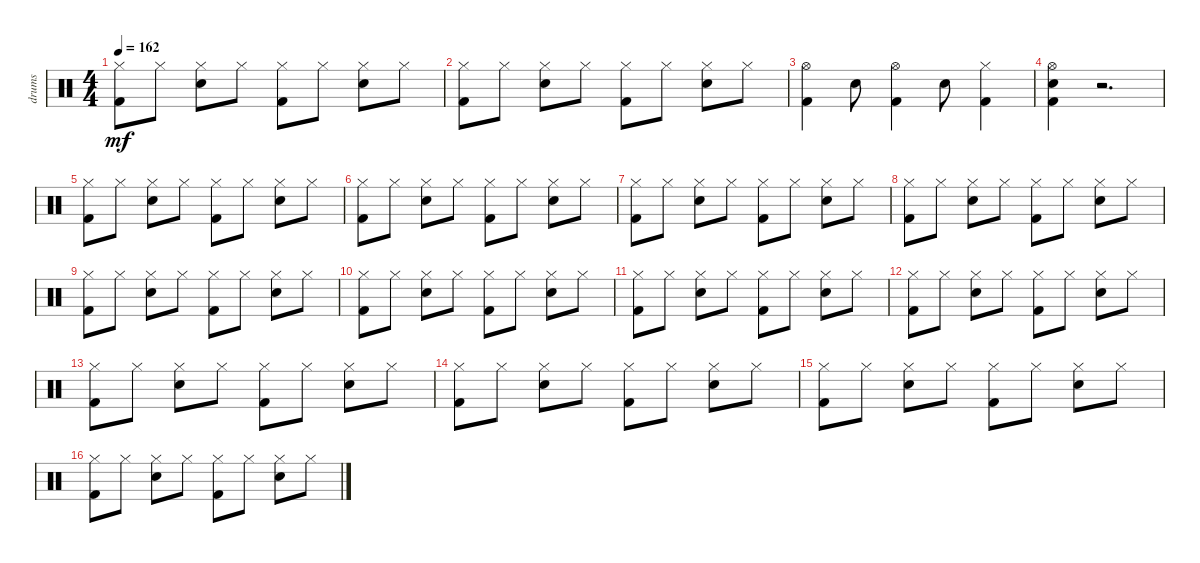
\track ("drums" "drums") {instrument percussion}
\staff {score}
\articulation defaults
\ts (4 4)
\tempo 162
\clef neutral
\ks c
("Hi-Hat (closed)" "Kick (hit) 2").8{dy mf} "Hi-Hat (closed)".8 ("Hi-Hat (closed)" "Snare (hit) 2").8 "Hi-Hat (closed)".8 ("Hi-Hat (closed)" "Kick (hit) 2").8 "Hi-Hat (closed)".8 ("Hi-Hat (closed)" "Snare (hit) 2").8 "Hi-Hat (closed)".8 |
("Hi-Hat (closed)" "Kick (hit) 2").8 "Hi-Hat (closed)".8 ("Hi-Hat (closed)" "Snare (hit) 2").8 "Hi-Hat (closed)".8 ("Hi-Hat (closed)" "Kick (hit) 2").8 "Hi-Hat (closed)".8 ("Hi-Hat (closed)" "Snare (hit) 2").8 "Hi-Hat (closed)".8 |
("Hi-Hat (open)" "Kick (hit) 2").4 "Snare (hit) 2".8 ("Hi-Hat (open)" "Kick (hit) 2").4 "Snare (hit) 2".8 ("Hi-Hat (closed)" "Kick (hit) 2").4 |
("Hi-Hat (open)" "Kick (hit) 2" "Snare (hit) 2").4 r.2{d} |
("Hi-Hat (closed)" "Kick (hit) 2").8 "Hi-Hat (closed)".8 ("Hi-Hat (closed)" "Snare (hit) 2").8 "Hi-Hat (closed)".8 ("Hi-Hat (closed)" "Kick (hit) 2").8 "Hi-Hat (closed)".8 ("Hi-Hat (closed)" "Snare (hit) 2").8 "Hi-Hat (closed)".8 |
("Hi-Hat (closed)" "Kick (hit) 2").8 "Hi-Hat (closed)".8 ("Hi-Hat (closed)" "Snare (hit) 2").8 "Hi-Hat (closed)".8 ("Hi-Hat (closed)" "Kick (hit) 2").8 "Hi-Hat (closed)".8 ("Hi-Hat (closed)" "Snare (hit) 2").8 "Hi-Hat (closed)".8 |
("Hi-Hat (closed)" "Kick (hit) 2").8 "Hi-Hat (closed)".8 ("Hi-Hat (closed)" "Snare (hit) 2").8 "Hi-Hat (closed)".8 ("Hi-Hat (closed)" "Kick (hit) 2").8 "Hi-Hat (closed)".8 ("Hi-Hat (closed)" "Snare (hit) 2").8 "Hi-Hat (closed)".8 |
("Hi-Hat (closed)" "Kick (hit) 2").8 "Hi-Hat (closed)".8 ("Hi-Hat (closed)" "Snare (hit) 2").8 "Hi-Hat (closed)".8 ("Hi-Hat (closed)" "Kick (hit) 2").8 "Hi-Hat (closed)".8 ("Hi-Hat (closed)" "Snare (hit) 2").8 "Hi-Hat (closed)".8 |
("Hi-Hat (closed)" "Kick (hit) 2").8 "Hi-Hat (closed)".8 ("Hi-Hat (closed)" "Snare (hit) 2").8 "Hi-Hat (closed)".8 ("Hi-Hat (closed)" "Kick (hit) 2").8 "Hi-Hat (closed)".8 ("Hi-Hat (closed)" "Snare (hit) 2").8 "Hi-Hat (closed)".8 |
("Hi-Hat (closed)" "Kick (hit) 2").8 "Hi-Hat (closed)".8 ("Hi-Hat (closed)" "Snare (hit) 2").8 "Hi-Hat (closed)".8 ("Hi-Hat (closed)" "Kick (hit) 2").8 "Hi-Hat (closed)".8 ("Hi-Hat (closed)" "Snare (hit) 2").8 "Hi-Hat (closed)".8 |
("Hi-Hat (closed)" "Kick (hit) 2").8 "Hi-Hat (closed)".8 ("Hi-Hat (closed)" "Snare (hit) 2").8 "Hi-Hat (closed)".8 ("Hi-Hat (closed)" "Kick (hit) 2").8 "Hi-Hat (closed)".8 ("Hi-Hat (closed)" "Snare (hit) 2").8 "Hi-Hat (closed)".8 |
("Hi-Hat (closed)" "Kick (hit) 2").8 "Hi-Hat (closed)".8 ("Hi-Hat (closed)" "Snare (hit) 2").8 "Hi-Hat (closed)".8 ("Hi-Hat (closed)" "Kick (hit) 2").8 "Hi-Hat (closed)".8 ("Hi-Hat (closed)" "Snare (hit) 2").8 "Hi-Hat (closed)".8 |
("Hi-Hat (closed)" "Kick (hit) 2").8 "Hi-Hat (closed)".8 ("Hi-Hat (closed)" "Snare (hit) 2").8 "Hi-Hat (closed)".8 ("Hi-Hat (closed)" "Kick (hit) 2").8 "Hi-Hat (closed)".8 ("Hi-Hat (closed)" "Snare (hit) 2").8 "Hi-Hat (closed)".8 |
("Hi-Hat (closed)" "Kick (hit) 2").8 "Hi-Hat (closed)".8 ("Hi-Hat (closed)" "Snare (hit) 2").8 "Hi-Hat (closed)".8 ("Hi-Hat (closed)" "Kick (hit) 2").8 "Hi-Hat (closed)".8 ("Hi-Hat (closed)" "Snare (hit) 2").8 "Hi-Hat (closed)".8 |
("Hi-Hat (closed)" "Kick (hit) 2").8 "Hi-Hat (closed)".8 ("Hi-Hat (closed)" "Snare (hit) 2").8 "Hi-Hat (closed)".8 ("Hi-Hat (closed)" "Kick (hit) 2").8 "Hi-Hat (closed)".8 ("Hi-Hat (closed)" "Snare (hit) 2").8 "Hi-Hat (closed)".8 |
("Hi-Hat (closed)" "Kick (hit) 2").8 "Hi-Hat (closed)".8 ("Hi-Hat (closed)" "Snare (hit) 2").8 "Hi-Hat (closed)".8 ("Hi-Hat (closed)" "Kick (hit) 2").8 "Hi-Hat (closed)".8 ("Hi-Hat (closed)" "Snare (hit) 2").8 "Hi-Hat (closed)".8
